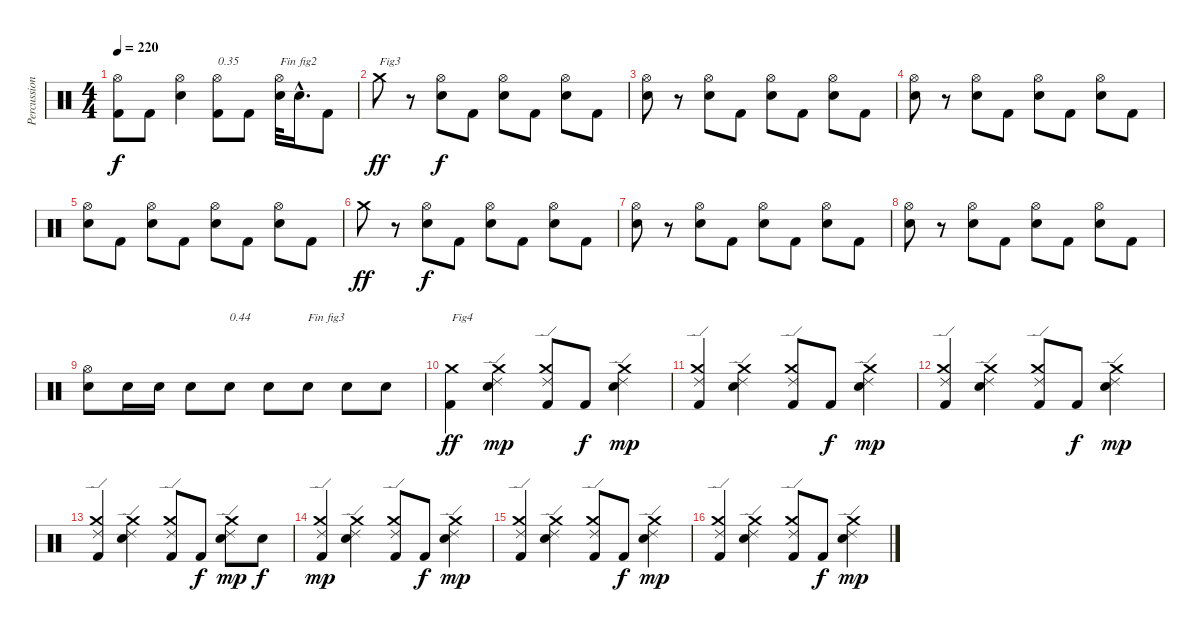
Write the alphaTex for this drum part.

\track ("Percussions" "Percussion") {instrument percussion}
\staff {score}
\articulation defaults
\ts (4 4)
\tempo 220
\clef neutral
\ks c
("Kick (hit) 2" "Hi-Hat (open)").8{dy f} "Kick (hit) 2".8 ("Electric Snare (hit)" "Hi-Hat (open)").4 ("Kick (hit) 2" "Hi-Hat (open)").8{txt "0.35"} "Kick (hit) 2".8 ("Electric Snare (hit)" "Hi-Hat (open)").32{txt "Fin fig2"} "Electric Snare (hit)"{hac}.16{d} "Kick (hit) 2".8 |
"Crash medium (hit)".8{txt "Fig3" dy ff} r.8 ("Electric Snare (hit)" "Hi-Hat (open)").8{dy f} "Kick (hit) 2".8 ("Electric Snare (hit)" "Hi-Hat (open)").8 "Kick (hit) 2".8 ("Electric Snare (hit)" "Hi-Hat (open)").8 "Kick (hit) 2".8 |
("Electric Snare (hit)" "Hi-Hat (open)").8 r.8 ("Electric Snare (hit)" "Hi-Hat (open)").8 "Kick (hit) 2".8 ("Electric Snare (hit)" "Hi-Hat (open)").8 "Kick (hit) 2".8 ("Electric Snare (hit)" "Hi-Hat (open)").8 "Kick (hit) 2".8 |
("Electric Snare (hit)" "Hi-Hat (open)").8 r.8 ("Electric Snare (hit)" "Hi-Hat (open)").8 "Kick (hit) 2".8 ("Electric Snare (hit)" "Hi-Hat (open)").8 "Kick (hit) 2".8 ("Electric Snare (hit)" "Hi-Hat (open)").8 "Kick (hit) 2".8 |
("Electric Snare (hit)" "Hi-Hat (open)").8 "Kick (hit) 2".8 ("Electric Snare (hit)" "Hi-Hat (open)").8 "Kick (hit) 2".8 ("Electric Snare (hit)" "Hi-Hat (open)").8 "Kick (hit) 2".8 ("Electric Snare (hit)" "Hi-Hat (open)").8 "Kick (hit) 2".8 |
"Crash medium (hit)".8{dy ff} r.8 ("Electric Snare (hit)" "Hi-Hat (open)").8{dy f} "Kick (hit) 2".8 ("Electric Snare (hit)" "Hi-Hat (open)").8 "Kick (hit) 2".8 ("Electric Snare (hit)" "Hi-Hat (open)").8 "Kick (hit) 2".8 |
("Electric Snare (hit)" "Hi-Hat (open)").8 r.8 ("Electric Snare (hit)" "Hi-Hat (open)").8 "Kick (hit) 2".8 ("Electric Snare (hit)" "Hi-Hat (open)").8 "Kick (hit) 2".8 ("Electric Snare (hit)" "Hi-Hat (open)").8 "Kick (hit) 2".8 |
("Electric Snare (hit)" "Hi-Hat (open)").8 r.8 ("Electric Snare (hit)" "Hi-Hat (open)").8 "Kick (hit) 2".8 ("Electric Snare (hit)" "Hi-Hat (open)").8 "Kick (hit) 2".8 ("Electric Snare (hit)" "Hi-Hat (open)").8 "Kick (hit) 2".8 |
("Electric Snare (hit)" "Hi-Hat (open)").8 "Electric Snare (hit)".16 "Electric Snare (hit)".16 "Electric Snare (hit)".8 "Electric Snare (hit)".8{txt "0.44"} "Electric Snare (hit)".8 "Electric Snare (hit)".8{txt "Fin fig3"} "Electric Snare (hit)".8 "Electric Snare (hit)".8 |
("Kick (hit) 2" "Crash medium (hit)").4{txt "Fig4" dy ff} ("Electric Snare (hit)" "Ride (edge) 2" "Crash medium (hit)").4{dy mp} ("Kick (hit) 2" "Ride (edge) 2" "Crash medium (hit)").8 "Kick (hit) 2".8{dy f} ("Electric Snare (hit)" "Ride (edge) 2" "Crash medium (hit)").4{dy mp} |
("Kick (hit) 2" "Ride (edge) 2" "Crash medium (hit)").4 ("Electric Snare (hit)" "Ride (edge) 2" "Crash medium (hit)").4 ("Kick (hit) 2" "Ride (edge) 2" "Crash medium (hit)").8 "Kick (hit) 2".8{dy f} ("Electric Snare (hit)" "Ride (edge) 2" "Crash medium (hit)").4{dy mp} |
("Kick (hit) 2" "Ride (edge) 2" "Crash medium (hit)").4 ("Electric Snare (hit)" "Ride (edge) 2" "Crash medium (hit)").4 ("Kick (hit) 2" "Ride (edge) 2" "Crash medium (hit)").8 "Kick (hit) 2".8{dy f} ("Electric Snare (hit)" "Ride (edge) 2" "Crash medium (hit)").4{dy mp} |
("Kick (hit) 2" "Ride (edge) 2" "Crash medium (hit)").4 ("Electric Snare (hit)" "Ride (edge) 2" "Crash medium (hit)").4 ("Kick (hit) 2" "Ride (edge) 2" "Crash medium (hit)").8 "Kick (hit) 2".8{dy f} ("Electric Snare (hit)" "Ride (edge) 2" "Crash medium (hit)").8{dy mp} "Electric Snare (hit)".8{dy f} |
("Kick (hit) 2" "Ride (edge) 2" "Crash medium (hit)").4{dy mp} ("Electric Snare (hit)" "Ride (edge) 2" "Crash medium (hit)").4 ("Kick (hit) 2" "Ride (edge) 2" "Crash medium (hit)").8 "Kick (hit) 2".8{dy f} ("Electric Snare (hit)" "Ride (edge) 2" "Crash medium (hit)").4{dy mp} |
("Kick (hit) 2" "Ride (edge) 2" "Crash medium (hit)").4 ("Electric Snare (hit)" "Ride (edge) 2" "Crash medium (hit)").4 ("Kick (hit) 2" "Ride (edge) 2" "Crash medium (hit)").8 "Kick (hit) 2".8{dy f} ("Electric Snare (hit)" "Ride (edge) 2" "Crash medium (hit)").4{dy mp} |
("Kick (hit) 2" "Ride (edge) 2" "Crash medium (hit)").4 ("Electric Snare (hit)" "Ride (edge) 2" "Crash medium (hit)").4 ("Kick (hit) 2" "Ride (edge) 2" "Crash medium (hit)").8 "Kick (hit) 2".8{dy f} ("Electric Snare (hit)" "Ride (edge) 2" "Crash medium (hit)").4{dy mp}
